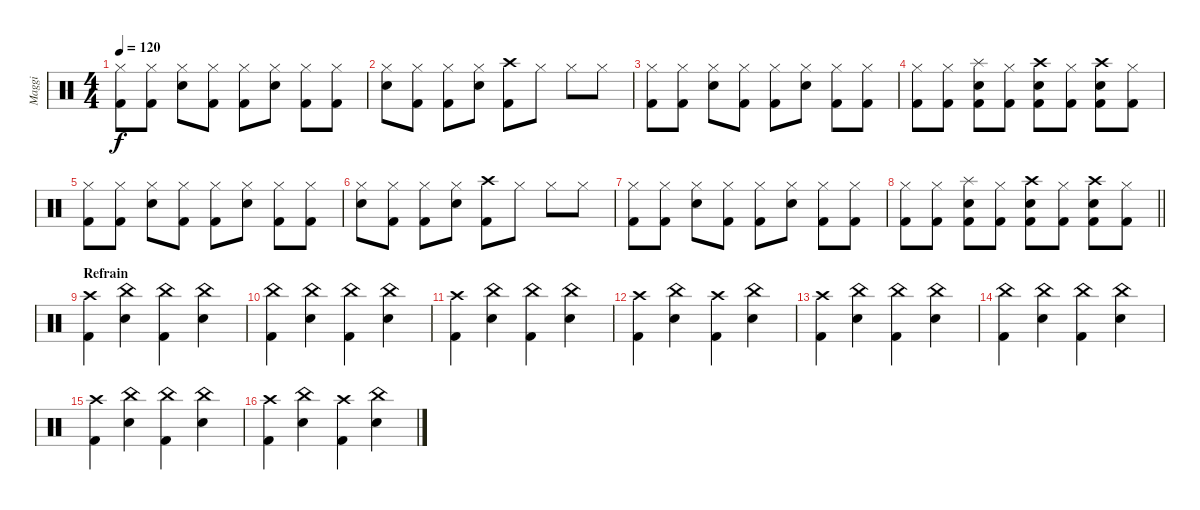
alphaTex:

\track ("Maggi" "Maggi") {instrument percussion}
\staff {score}
\articulation defaults
\ts (4 4)
\tempo 120
\clef neutral
\ks c
("Hi-Hat (closed)" "Kick (hit) 2").8{dy f} ("Hi-Hat (closed)" "Kick (hit) 2").8 ("Hi-Hat (closed)" "Snare (hit) 2").8 ("Hi-Hat (closed)" "Kick (hit) 2").8 ("Hi-Hat (closed)" "Kick (hit) 2").8 ("Hi-Hat (closed)" "Snare (hit) 2").8 ("Hi-Hat (closed)" "Kick (hit) 2").8 ("Hi-Hat (closed)" "Kick (hit) 2").8 |
("Hi-Hat (closed)" "Snare (hit) 2").8 ("Hi-Hat (closed)" "Kick (hit) 2").8 ("Hi-Hat (closed)" "Kick (hit) 2").8 ("Hi-Hat (closed)" "Snare (hit) 2").8 ("Crash high (hit)" "Kick (hit) 2").8 "Hi-Hat (closed)".8 "Hi-Hat (closed)".8 "Hi-Hat (closed)".8 |
("Hi-Hat (closed)" "Kick (hit) 2").8 ("Hi-Hat (closed)" "Kick (hit) 2").8 ("Hi-Hat (closed)" "Snare (hit) 2").8 ("Hi-Hat (closed)" "Kick (hit) 2").8 ("Hi-Hat (closed)" "Kick (hit) 2").8 ("Hi-Hat (closed)" "Snare (hit) 2").8 ("Hi-Hat (closed)" "Kick (hit) 2").8 ("Hi-Hat (closed)" "Kick (hit) 2").8 |
("Hi-Hat (closed)" "Kick (hit) 2").8 ("Hi-Hat (closed)" "Kick (hit) 2").8 ("Splash (hit)" "Snare (hit) 2" "Kick (hit) 2").8 ("Hi-Hat (closed)" "Kick (hit) 2").8 ("Crash high (hit)" "Snare (hit) 2" "Kick (hit) 2").8 ("Hi-Hat (closed)" "Kick (hit) 2").8 ("Crash high (hit)" "Snare (hit) 2" "Kick (hit) 2").8 ("Hi-Hat (closed)" "Kick (hit) 2").8 |
("Hi-Hat (closed)" "Kick (hit) 2").8 ("Hi-Hat (closed)" "Kick (hit) 2").8 ("Hi-Hat (closed)" "Snare (hit) 2").8 ("Hi-Hat (closed)" "Kick (hit) 2").8 ("Hi-Hat (closed)" "Kick (hit) 2").8 ("Hi-Hat (closed)" "Snare (hit) 2").8 ("Hi-Hat (closed)" "Kick (hit) 2").8 ("Hi-Hat (closed)" "Kick (hit) 2").8 |
("Hi-Hat (closed)" "Snare (hit) 2").8 ("Hi-Hat (closed)" "Kick (hit) 2").8 ("Hi-Hat (closed)" "Kick (hit) 2").8 ("Hi-Hat (closed)" "Snare (hit) 2").8 ("Crash high (hit)" "Kick (hit) 2").8 "Hi-Hat (closed)".8 "Hi-Hat (closed)".8 "Hi-Hat (closed)".8 |
("Hi-Hat (closed)" "Kick (hit) 2").8 ("Hi-Hat (closed)" "Kick (hit) 2").8 ("Hi-Hat (closed)" "Snare (hit) 2").8 ("Hi-Hat (closed)" "Kick (hit) 2").8 ("Hi-Hat (closed)" "Kick (hit) 2").8 ("Hi-Hat (closed)" "Snare (hit) 2").8 ("Hi-Hat (closed)" "Kick (hit) 2").8 ("Hi-Hat (closed)" "Kick (hit) 2").8 |
\barLineRight lightlight
("Hi-Hat (closed)" "Kick (hit) 2").8 ("Hi-Hat (closed)" "Kick (hit) 2").8 ("Splash (hit)" "Snare (hit) 2" "Kick (hit) 2").8 ("Hi-Hat (closed)" "Kick (hit) 2").8 ("Crash high (hit)" "Snare (hit) 2" "Kick (hit) 2").8 ("Hi-Hat (closed)" "Kick (hit) 2").8 ("Crash high (hit)" "Snare (hit) 2" "Kick (hit) 2").8 ("Hi-Hat (closed)" "Kick (hit) 2").8 |
\section ("" "Refrain")
("Crash high (hit)" "Kick (hit) 2").4 ("China (hit)" "Snare (hit) 2").4 ("China (hit)" "Kick (hit) 2").4 ("China (hit)" "Snare (hit) 2").4 |
("China (hit)" "Kick (hit) 2").4 ("China (hit)" "Snare (hit) 2").4 ("China (hit)" "Kick (hit) 2").4 ("China (hit)" "Snare (hit) 2").4 |
("Crash high (hit)" "Kick (hit) 2").4 ("China (hit)" "Snare (hit) 2").4 ("China (hit)" "Kick (hit) 2").4 ("China (hit)" "Snare (hit) 2").4 |
("Crash high (hit)" "Kick (hit) 2").4 ("China (hit)" "Snare (hit) 2").4 ("Crash high (hit)" "Kick (hit) 2").4 ("China (hit)" "Snare (hit) 2").4 |
("Crash high (hit)" "Kick (hit) 2").4 ("China (hit)" "Snare (hit) 2").4 ("China (hit)" "Kick (hit) 2").4 ("China (hit)" "Snare (hit) 2").4 |
("China (hit)" "Kick (hit) 2").4 ("China (hit)" "Snare (hit) 2").4 ("China (hit)" "Kick (hit) 2").4 ("China (hit)" "Snare (hit) 2").4 |
("Crash high (hit)" "Kick (hit) 2").4 ("China (hit)" "Snare (hit) 2").4 ("China (hit)" "Kick (hit) 2").4 ("China (hit)" "Snare (hit) 2").4 |
("Crash high (hit)" "Kick (hit) 2").4 ("China (hit)" "Snare (hit) 2").4 ("Crash high (hit)" "Kick (hit) 2").4 ("China (hit)" "Snare (hit) 2").4
